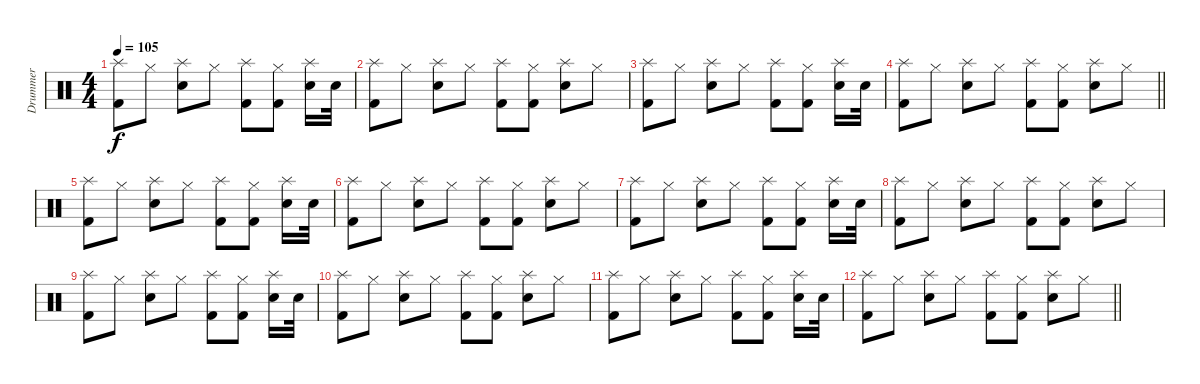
\track ("Drummer" "Drummer") {instrument percussion}
\staff {score}
\articulation defaults
\ts (4 4)
\tempo 105
\clef neutral
\ks c
("Splash (hit)" "Kick (hit) 2").8{dy f} "Hi-Hat (closed)".8 ("Splash (hit)" "Snare (hit) 2").8 "Hi-Hat (closed)".8 ("Splash (hit)" "Kick (hit) 2").8 ("Hi-Hat (closed)" "Kick (hit) 2").8 ("Splash (hit)" "Snare (hit) 2").16 "Snare (hit) 2".32 |
("Splash (hit)" "Kick (hit) 2").8 "Hi-Hat (closed)".8 ("Splash (hit)" "Snare (hit) 2").8 "Hi-Hat (closed)".8 ("Splash (hit)" "Kick (hit) 2").8 ("Hi-Hat (closed)" "Kick (hit) 2").8 ("Splash (hit)" "Snare (hit) 2").8 "Hi-Hat (closed)".8 |
("Splash (hit)" "Kick (hit) 2").8 "Hi-Hat (closed)".8 ("Splash (hit)" "Snare (hit) 2").8 "Hi-Hat (closed)".8 ("Splash (hit)" "Kick (hit) 2").8 ("Hi-Hat (closed)" "Kick (hit) 2").8 ("Splash (hit)" "Snare (hit) 2").16 "Snare (hit) 2".32 |
\barLineRight lightlight
("Splash (hit)" "Kick (hit) 2").8 "Hi-Hat (closed)".8 ("Splash (hit)" "Snare (hit) 2").8 "Hi-Hat (closed)".8 ("Splash (hit)" "Kick (hit) 2").8 ("Hi-Hat (closed)" "Kick (hit) 2").8 ("Splash (hit)" "Snare (hit) 2").8 "Hi-Hat (closed)".8 |
("Splash (hit)" "Kick (hit) 2").8 "Hi-Hat (closed)".8 ("Splash (hit)" "Snare (hit) 2").8 "Hi-Hat (closed)".8 ("Splash (hit)" "Kick (hit) 2").8 ("Hi-Hat (closed)" "Kick (hit) 2").8 ("Splash (hit)" "Snare (hit) 2").16 "Snare (hit) 2".32 |
("Splash (hit)" "Kick (hit) 2").8 "Hi-Hat (closed)".8 ("Splash (hit)" "Snare (hit) 2").8 "Hi-Hat (closed)".8 ("Splash (hit)" "Kick (hit) 2").8 ("Hi-Hat (closed)" "Kick (hit) 2").8 ("Splash (hit)" "Snare (hit) 2").8 "Hi-Hat (closed)".8 |
("Splash (hit)" "Kick (hit) 2").8 "Hi-Hat (closed)".8 ("Splash (hit)" "Snare (hit) 2").8 "Hi-Hat (closed)".8 ("Splash (hit)" "Kick (hit) 2").8 ("Hi-Hat (closed)" "Kick (hit) 2").8 ("Splash (hit)" "Snare (hit) 2").16 "Snare (hit) 2".32 |
("Splash (hit)" "Kick (hit) 2").8 "Hi-Hat (closed)".8 ("Splash (hit)" "Snare (hit) 2").8 "Hi-Hat (closed)".8 ("Splash (hit)" "Kick (hit) 2").8 ("Hi-Hat (closed)" "Kick (hit) 2").8 ("Splash (hit)" "Snare (hit) 2").8 "Hi-Hat (closed)".8 |
("Splash (hit)" "Kick (hit) 2").8 "Hi-Hat (closed)".8 ("Splash (hit)" "Snare (hit) 2").8 "Hi-Hat (closed)".8 ("Splash (hit)" "Kick (hit) 2").8 ("Hi-Hat (closed)" "Kick (hit) 2").8 ("Splash (hit)" "Snare (hit) 2").16 "Snare (hit) 2".32 |
("Splash (hit)" "Kick (hit) 2").8 "Hi-Hat (closed)".8 ("Splash (hit)" "Snare (hit) 2").8 "Hi-Hat (closed)".8 ("Splash (hit)" "Kick (hit) 2").8 ("Hi-Hat (closed)" "Kick (hit) 2").8 ("Splash (hit)" "Snare (hit) 2").8 "Hi-Hat (closed)".8 |
("Splash (hit)" "Kick (hit) 2").8 "Hi-Hat (closed)".8 ("Splash (hit)" "Snare (hit) 2").8 "Hi-Hat (closed)".8 ("Splash (hit)" "Kick (hit) 2").8 ("Hi-Hat (closed)" "Kick (hit) 2").8 ("Splash (hit)" "Snare (hit) 2").16 "Snare (hit) 2".32 |
\barLineRight lightlight
("Splash (hit)" "Kick (hit) 2").8 "Hi-Hat (closed)".8 ("Splash (hit)" "Snare (hit) 2").8 "Hi-Hat (closed)".8 ("Splash (hit)" "Kick (hit) 2").8 ("Hi-Hat (closed)" "Kick (hit) 2").8 ("Splash (hit)" "Snare (hit) 2").8 "Hi-Hat (closed)".8
